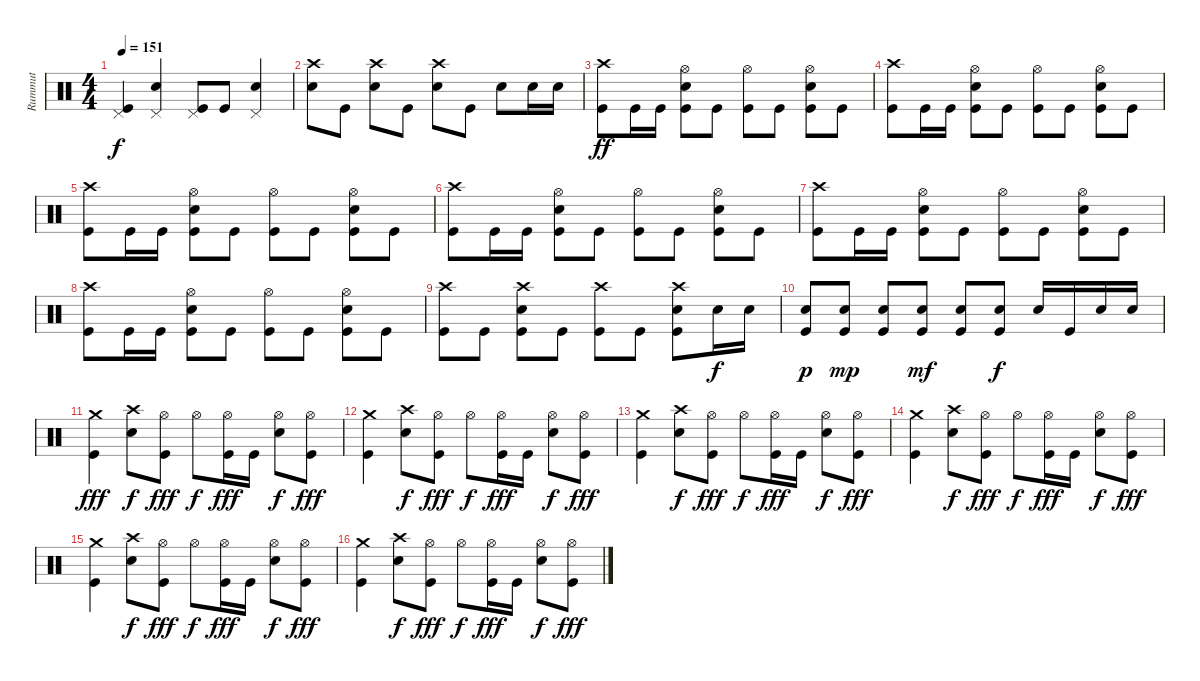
\track ("Rummut" "Rummut") {instrument percussion}
\staff {score}
\articulation defaults
\ts (4 4)
\tempo 151
\clef neutral
\ks c
("Pedal Hi-Hat (hit)" "Kick (hit)").4{dy f} ("Pedal Hi-Hat (hit)" "Snare (hit) 2").4 ("Pedal Hi-Hat (hit)" "Kick (hit)").8 "Kick (hit)".8 ("Pedal Hi-Hat (hit)" "Snare (hit) 2").4 |
("Crash high (hit)" "Snare (hit) 2").8 "Kick (hit)".8 ("Crash high (hit)" "Snare (hit) 2").8 "Kick (hit)".8 ("Crash high (hit)" "Snare (hit) 2").8 "Kick (hit)".8 "Snare (hit) 2".8 "Snare (hit) 2".16 "Snare (hit) 2".16 |
("Crash high (hit)" "Kick (hit)").8{dy ff} "Kick (hit)".16 "Kick (hit)".16 ("Hi-Hat (open)" "Snare (hit) 2" "Kick (hit)").8 "Kick (hit)".8 ("Hi-Hat (open)" "Kick (hit)").8 "Kick (hit)".8 ("Hi-Hat (open)" "Snare (hit) 2" "Kick (hit)").8 "Kick (hit)".8 |
("Crash high (hit)" "Kick (hit)").8 "Kick (hit)".16 "Kick (hit)".16 ("Hi-Hat (open)" "Snare (hit) 2" "Kick (hit)").8 "Kick (hit)".8 ("Hi-Hat (open)" "Kick (hit)").8 "Kick (hit)".8 ("Hi-Hat (open)" "Snare (hit) 2" "Kick (hit)").8 "Kick (hit)".8 |
("Crash high (hit)" "Kick (hit)").8 "Kick (hit)".16 "Kick (hit)".16 ("Hi-Hat (open)" "Snare (hit) 2" "Kick (hit)").8 "Kick (hit)".8 ("Hi-Hat (open)" "Kick (hit)").8 "Kick (hit)".8 ("Hi-Hat (open)" "Snare (hit) 2" "Kick (hit)").8 "Kick (hit)".8 |
("Crash high (hit)" "Kick (hit)").8 "Kick (hit)".16 "Kick (hit)".16 ("Hi-Hat (open)" "Snare (hit) 2" "Kick (hit)").8 "Kick (hit)".8 ("Hi-Hat (open)" "Kick (hit)").8 "Kick (hit)".8 ("Hi-Hat (open)" "Snare (hit) 2" "Kick (hit)").8 "Kick (hit)".8 |
("Crash high (hit)" "Kick (hit)").8 "Kick (hit)".16 "Kick (hit)".16 ("Hi-Hat (open)" "Snare (hit) 2" "Kick (hit)").8 "Kick (hit)".8 ("Hi-Hat (open)" "Kick (hit)").8 "Kick (hit)".8 ("Hi-Hat (open)" "Snare (hit) 2" "Kick (hit)").8 "Kick (hit)".8 |
("Crash high (hit)" "Kick (hit)").8 "Kick (hit)".16 "Kick (hit)".16 ("Hi-Hat (open)" "Snare (hit) 2" "Kick (hit)").8 "Kick (hit)".8 ("Hi-Hat (open)" "Kick (hit)").8 "Kick (hit)".8 ("Hi-Hat (open)" "Snare (hit) 2" "Kick (hit)").8 "Kick (hit)".8 |
("Crash high (hit)" "Kick (hit)").8 "Kick (hit)".8 ("Crash high (hit)" "Snare (hit) 2" "Kick (hit)").8 "Kick (hit)".8 ("Crash high (hit)" "Kick (hit)").8 "Kick (hit)".8 ("Crash high (hit)" "Snare (hit) 2" "Kick (hit)").8 "Snare (hit) 2".16{dy f} "Snare (hit) 2".16 |
("Snare (hit) 2" "Kick (hit)").8{dy p} ("Snare (hit) 2" "Kick (hit)").8{dy mp} ("Snare (hit) 2" "Kick (hit)").8 ("Snare (hit) 2" "Kick (hit)").8{dy mf} ("Snare (hit) 2" "Kick (hit)").8 ("Snare (hit) 2" "Kick (hit)").8{dy f} "Snare (hit) 2".16 "Kick (hit)".16 "Snare (hit) 2".16 "Snare (hit) 2".16 |
("Crash medium (hit)" "Kick (hit)").4{dy fff} ("Crash high (hit)" "Snare (hit) 2").8{dy f} ("Hi-Hat (open)" "Kick (hit)").8{dy fff} "Hi-Hat (open)".8{dy f} ("Hi-Hat (open)" "Kick (hit)").16{dy fff} "Kick (hit)".16 ("Hi-Hat (open)" "Snare (hit) 2").8{dy f} ("Hi-Hat (open)" "Kick (hit)").8{dy fff} |
("Crash medium (hit)" "Kick (hit)").4 ("Crash high (hit)" "Snare (hit) 2").8{dy f} ("Hi-Hat (open)" "Kick (hit)").8{dy fff} "Hi-Hat (open)".8{dy f} ("Hi-Hat (open)" "Kick (hit)").16{dy fff} "Kick (hit)".16 ("Hi-Hat (open)" "Snare (hit) 2").8{dy f} ("Hi-Hat (open)" "Kick (hit)").8{dy fff} |
("Crash medium (hit)" "Kick (hit)").4 ("Crash high (hit)" "Snare (hit) 2").8{dy f} ("Hi-Hat (open)" "Kick (hit)").8{dy fff} "Hi-Hat (open)".8{dy f} ("Hi-Hat (open)" "Kick (hit)").16{dy fff} "Kick (hit)".16 ("Hi-Hat (open)" "Snare (hit) 2").8{dy f} ("Hi-Hat (open)" "Kick (hit)").8{dy fff} |
("Crash medium (hit)" "Kick (hit)").4 ("Crash high (hit)" "Snare (hit) 2").8{dy f} ("Hi-Hat (open)" "Kick (hit)").8{dy fff} "Hi-Hat (open)".8{dy f} ("Hi-Hat (open)" "Kick (hit)").16{dy fff} "Kick (hit)".16 ("Hi-Hat (open)" "Snare (hit) 2").8{dy f} ("Hi-Hat (open)" "Kick (hit)").8{dy fff} |
("Crash medium (hit)" "Kick (hit)").4 ("Crash high (hit)" "Snare (hit) 2").8{dy f} ("Hi-Hat (open)" "Kick (hit)").8{dy fff} "Hi-Hat (open)".8{dy f} ("Hi-Hat (open)" "Kick (hit)").16{dy fff} "Kick (hit)".16 ("Hi-Hat (open)" "Snare (hit) 2").8{dy f} ("Hi-Hat (open)" "Kick (hit)").8{dy fff} |
("Crash medium (hit)" "Kick (hit)").4 ("Crash high (hit)" "Snare (hit) 2").8{dy f} ("Hi-Hat (open)" "Kick (hit)").8{dy fff} "Hi-Hat (open)".8{dy f} ("Hi-Hat (open)" "Kick (hit)").16{dy fff} "Kick (hit)".16 ("Hi-Hat (open)" "Snare (hit) 2").8{dy f} ("Hi-Hat (open)" "Kick (hit)").8{dy fff}
